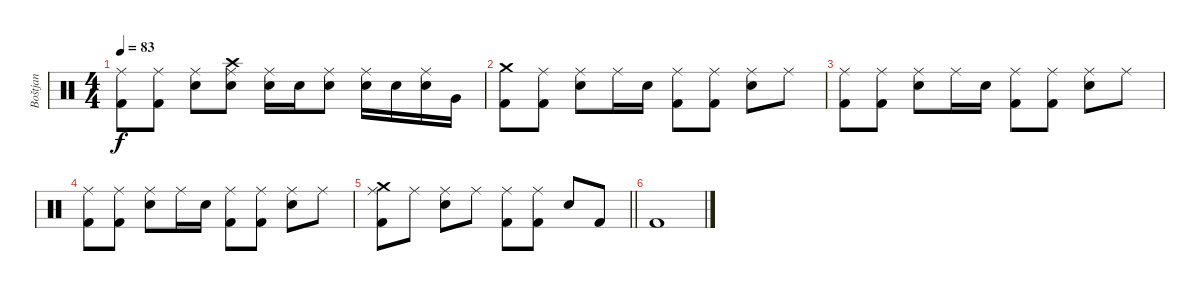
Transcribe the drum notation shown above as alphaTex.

\track ("Boštjan" "Boštjan") {instrument percussion}
\staff {score}
\articulation defaults
\ts (4 4)
\tempo 83
\clef neutral
\ks c
("Ride (middle)" "Kick (hit) 2").8{dy f} ("Ride (middle)" "Kick (hit) 2").8 ("Ride (middle)" "Snare (hit) 2").8 ("Ride (middle)" "Crash high (hit)" "Snare (hit) 2").8 ("Ride (middle)" "Snare (hit) 2").16 "Snare (hit) 2".16 ("Ride (middle)" "Snare (hit) 2").8 ("Ride (middle)" "Snare (hit) 2").16 "Snare (hit) 2".16 ("Ride (middle)" "Snare (hit) 2").16 "Very Low Tom (hit)".16 |
("Crash medium (hit)" "Kick (hit) 2").8 ("Ride (middle)" "Kick (hit) 2").8 ("Ride (middle)" "Snare (hit) 2").8 "Ride (middle)".16 "Snare (hit) 2".16 ("Ride (middle)" "Kick (hit) 2").8 ("Ride (middle)" "Kick (hit) 2").8 ("Ride (middle)" "Snare (hit) 2").8 "Ride (middle)".8 |
("Ride (middle)" "Kick (hit) 2").8 ("Ride (middle)" "Kick (hit) 2").8 ("Ride (middle)" "Snare (hit) 2").8 "Ride (middle)".16 "Snare (hit) 2".16 ("Ride (middle)" "Kick (hit) 2").8 ("Ride (middle)" "Kick (hit) 2").8 ("Ride (middle)" "Snare (hit) 2").8 "Ride (middle)".8 |
("Ride (middle)" "Kick (hit) 2").8 ("Ride (middle)" "Kick (hit) 2").8 ("Ride (middle)" "Snare (hit) 2").8 "Ride (middle)".16 "Snare (hit) 2".16 ("Ride (middle)" "Kick (hit) 2").8 ("Ride (middle)" "Kick (hit) 2").8 ("Ride (middle)" "Snare (hit) 2").8 "Ride (middle)".8 |
\barLineRight lightlight
("Ride (middle)" "Crash medium (hit)" "Kick (hit) 2").8 "Ride (middle)".8 ("Ride (middle)" "Snare (hit) 2").8 "Ride (middle)".8 ("Ride (middle)" "Kick (hit) 2").8 ("Ride (middle)" "Kick (hit) 2").8 "Snare (hit) 2".8 "Kick (hit) 2".8 |
"Kick (hit) 2".1
